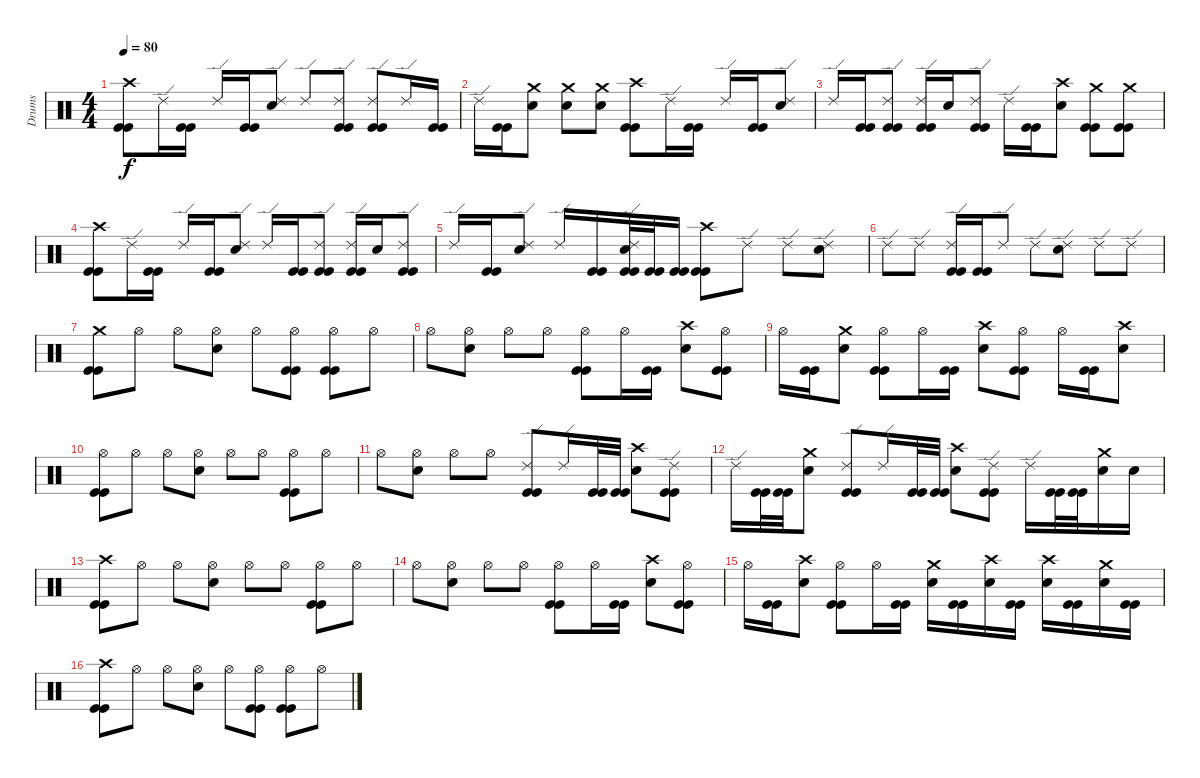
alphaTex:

\track ("Drums" "Drums") {instrument percussion}
\staff {score}
\articulation defaults
\ts (4 4)
\tempo 80
\clef neutral
\ks c
("Kick (hit)" "Kick (hit)" "Crash high (hit)").8{dy f} "Ride (edge) 2".16 ("Kick (hit)" "Kick (hit)").16 "Ride (edge) 2".16 ("Kick (hit)" "Kick (hit)").16 ("Electric Snare (hit)" "Ride (edge) 2").8 "Ride (edge) 2".8 ("Kick (hit)" "Kick (hit)" "Ride (edge) 2").8 ("Kick (hit)" "Kick (hit)" "Ride (edge) 2").8 "Ride (edge) 2".16 ("Kick (hit)" "Kick (hit)").16 |
"Ride (edge) 2".16 ("Kick (hit)" "Kick (hit)").16 ("Electric Snare (hit)" "Crash medium (hit)").8 ("Electric Snare (hit)" "Crash medium (hit)").8 ("Electric Snare (hit)" "Crash medium (hit)").8 ("Kick (hit)" "Kick (hit)" "Crash high (hit)").8 "Ride (edge) 2".16 ("Kick (hit)" "Kick (hit)").16 "Ride (edge) 2".16 ("Kick (hit)" "Kick (hit)").16 ("Electric Snare (hit)" "Ride (edge) 2").8 |
"Ride (edge) 2".16 ("Kick (hit)" "Kick (hit)").16 ("Kick (hit)" "Kick (hit)" "Ride (edge) 2").8 ("Kick (hit)" "Kick (hit)" "Ride (edge) 2").16 "Electric Snare (hit)".16 ("Kick (hit)" "Kick (hit)" "Ride (edge) 2").8 "Ride (edge) 2".16 ("Kick (hit)" "Kick (hit)").16 ("Electric Snare (hit)" "Crash high (hit)").8 ("Kick (hit)" "Kick (hit)" "Crash medium (hit)").8 ("Kick (hit)" "Kick (hit)" "Crash medium (hit)").8 |
("Kick (hit)" "Kick (hit)" "Crash high (hit)").8 "Ride (edge) 2".16 ("Kick (hit)" "Kick (hit)").16 "Ride (edge) 2".16 ("Kick (hit)" "Kick (hit)").16 ("Electric Snare (hit)" "Ride (edge) 2").8 "Ride (edge) 2".16 ("Kick (hit)" "Kick (hit)").16 ("Kick (hit)" "Kick (hit)" "Ride (edge) 2").8 ("Kick (hit)" "Kick (hit)" "Ride (edge) 2").16 "Electric Snare (hit)".16 ("Kick (hit)" "Kick (hit)" "Ride (edge) 2").8 |
"Ride (edge) 2".16 ("Kick (hit)" "Kick (hit)").16 ("Electric Snare (hit)" "Ride (edge) 2").8 "Ride (edge) 2".16 ("Kick (hit)" "Kick (hit)").16 ("Kick (hit)" "Kick (hit)" "Electric Snare (hit)" "Ride (edge) 2").32 ("Kick (hit)" "Kick (hit)").32 ("Kick (hit)" "Kick (hit)").16 ("Kick (hit)" "Kick (hit)" "Crash high (hit)").8 "Ride (edge) 2".8 "Ride (edge) 2".8 ("Electric Snare (hit)" "Ride (edge) 2").8 |
"Ride (edge) 2".8 "Ride (edge) 2".8 ("Kick (hit)" "Kick (hit)" "Ride (edge) 2").16 ("Kick (hit)" "Kick (hit)").16 "Ride (edge) 2".8 "Ride (edge) 2".8 ("Electric Snare (hit)" "Ride (edge) 2").8 "Ride (edge) 2".8 "Ride (edge) 2".8 |
("Kick (hit)" "Kick (hit)" "Crash medium (hit)").8 "Hi-Hat (open)".8 "Hi-Hat (open)".8 ("Electric Snare (hit)" "Hi-Hat (open)").8 "Hi-Hat (open)".8 ("Kick (hit)" "Kick (hit)" "Hi-Hat (open)").8 ("Kick (hit)" "Kick (hit)" "Hi-Hat (open)").8 "Hi-Hat (open)".8 |
"Hi-Hat (open)".8 ("Electric Snare (hit)" "Hi-Hat (open)").8 "Hi-Hat (open)".8 "Hi-Hat (open)".8 ("Kick (hit)" "Kick (hit)" "Hi-Hat (open)").8 "Hi-Hat (open)".16 ("Kick (hit)" "Kick (hit)").16 ("Electric Snare (hit)" "Crash high (hit)").8 ("Kick (hit)" "Kick (hit)" "Hi-Hat (open)").8 |
"Hi-Hat (open)".16 ("Kick (hit)" "Kick (hit)").16 ("Electric Snare (hit)" "Crash medium (hit)").8 ("Kick (hit)" "Kick (hit)" "Hi-Hat (open)").8 "Hi-Hat (open)".16 ("Kick (hit)" "Kick (hit)").16 ("Electric Snare (hit)" "Crash high (hit)").8 ("Kick (hit)" "Kick (hit)" "Hi-Hat (open)").8 "Hi-Hat (open)".16 ("Kick (hit)" "Kick (hit)").16 ("Electric Snare (hit)" "Crash high (hit)").8 |
("Kick (hit)" "Kick (hit)" "Hi-Hat (open)").8 "Hi-Hat (open)".8 "Hi-Hat (open)".8 ("Electric Snare (hit)" "Hi-Hat (open)").8 "Hi-Hat (open)".8 "Hi-Hat (open)".8 ("Kick (hit)" "Kick (hit)" "Hi-Hat (open)").8 "Hi-Hat (open)".8 |
"Hi-Hat (open)".8 ("Electric Snare (hit)" "Hi-Hat (open)").8 "Hi-Hat (open)".8 "Hi-Hat (open)".8 ("Kick (hit)" "Kick (hit)" "Ride (edge) 2").8 "Ride (edge) 2".16 ("Kick (hit)" "Kick (hit)").32 ("Kick (hit)" "Kick (hit)").32 ("Electric Snare (hit)" "Crash high (hit)").8 ("Kick (hit)" "Kick (hit)" "Ride (edge) 2").8 |
"Ride (edge) 2".16 ("Kick (hit)" "Kick (hit)").32 ("Kick (hit)" "Kick (hit)").32 ("Electric Snare (hit)" "Crash medium (hit)").8 ("Kick (hit)" "Kick (hit)" "Ride (edge) 2").8 "Ride (edge) 2".16 ("Kick (hit)" "Kick (hit)").32 ("Kick (hit)" "Kick (hit)").32 ("Electric Snare (hit)" "Crash high (hit)").8 ("Kick (hit)" "Kick (hit)" "Ride (edge) 2").8 "Ride (edge) 2".16 ("Kick (hit)" "Kick (hit)").32 ("Kick (hit)" "Kick (hit)").32 ("Electric Snare (hit)" "Crash medium (hit)").16 "Electric Snare (hit)".16 |
("Kick (hit)" "Kick (hit)" "Crash high (hit)").8 "Hi-Hat (open)".8 "Hi-Hat (open)".8 ("Electric Snare (hit)" "Hi-Hat (open)").8 "Hi-Hat (open)".8 "Hi-Hat (open)".8 ("Kick (hit)" "Kick (hit)" "Hi-Hat (open)").8 "Hi-Hat (open)".8 |
"Hi-Hat (open)".8 ("Electric Snare (hit)" "Hi-Hat (open)").8 "Hi-Hat (open)".8 "Hi-Hat (open)".8 ("Kick (hit)" "Kick (hit)" "Hi-Hat (open)").8 "Hi-Hat (open)".16 ("Kick (hit)" "Kick (hit)").16 ("Electric Snare (hit)" "Crash high (hit)").8 ("Kick (hit)" "Kick (hit)" "Hi-Hat (open)").8 |
"Hi-Hat (open)".16 ("Kick (hit)" "Kick (hit)").16 ("Electric Snare (hit)" "Crash high (hit)").8 ("Kick (hit)" "Kick (hit)" "Hi-Hat (open)").8 "Hi-Hat (open)".16 ("Kick (hit)" "Kick (hit)").16 ("Electric Snare (hit)" "Crash medium (hit)").16 ("Kick (hit)" "Kick (hit)").16 ("Electric Snare (hit)" "Crash high (hit)").16 ("Kick (hit)" "Kick (hit)").16 ("Electric Snare (hit)" "Crash high (hit)").16 ("Kick (hit)" "Kick (hit)").16 ("Electric Snare (hit)" "Crash medium (hit)").16 ("Kick (hit)" "Kick (hit)").16 |
("Kick (hit)" "Kick (hit)" "Crash high (hit)").8 "Hi-Hat (open)".8 "Hi-Hat (open)".8 ("Electric Snare (hit)" "Hi-Hat (open)").8 "Hi-Hat (open)".8 ("Kick (hit)" "Kick (hit)" "Hi-Hat (open)").8 ("Kick (hit)" "Kick (hit)" "Hi-Hat (open)").8 "Hi-Hat (open)".8
